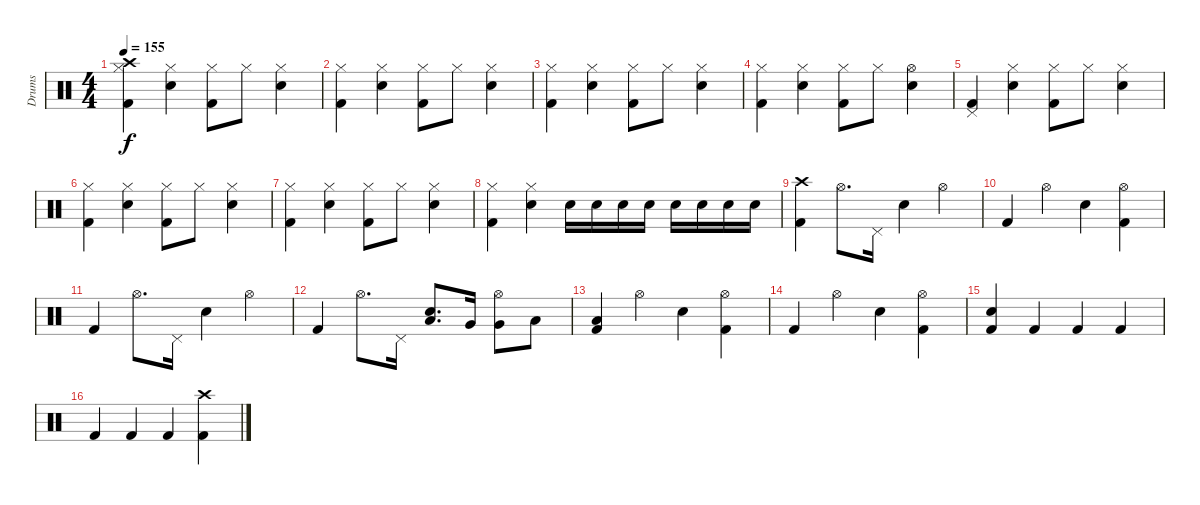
\track ("Drums" "Drums") {instrument percussion}
\staff {score}
\articulation defaults
\ts (4 4)
\tempo 155
\clef neutral
\ks c
("Crash high (hit)" "Hi-Hat (closed)" "Kick (hit) 2").4{dy f} ("Hi-Hat (closed)" "Electric Snare (hit)").4 ("Hi-Hat (closed)" "Kick (hit) 2").8 "Hi-Hat (closed)".8 ("Hi-Hat (closed)" "Electric Snare (hit)").4 |
("Hi-Hat (closed)" "Kick (hit) 2").4 ("Hi-Hat (closed)" "Electric Snare (hit)").4 ("Hi-Hat (closed)" "Kick (hit) 2").8 "Hi-Hat (closed)".8 ("Hi-Hat (closed)" "Electric Snare (hit)").4 |
("Hi-Hat (closed)" "Kick (hit) 2").4 ("Hi-Hat (closed)" "Electric Snare (hit)").4 ("Hi-Hat (closed)" "Kick (hit) 2").8 "Hi-Hat (closed)".8 ("Hi-Hat (closed)" "Electric Snare (hit)").4 |
("Hi-Hat (closed)" "Kick (hit) 2").4 ("Hi-Hat (closed)" "Electric Snare (hit)").4 ("Hi-Hat (closed)" "Kick (hit) 2").8 "Hi-Hat (closed)".8 ("Hi-Hat (open)" "Electric Snare (hit)").4 |
("Pedal Hi-Hat (hit)" "Kick (hit) 2").4 ("Hi-Hat (closed)" "Electric Snare (hit)").4 ("Hi-Hat (closed)" "Kick (hit) 2").8 "Hi-Hat (closed)".8 ("Hi-Hat (closed)" "Electric Snare (hit)").4 |
("Hi-Hat (closed)" "Kick (hit) 2").4 ("Hi-Hat (closed)" "Electric Snare (hit)").4 ("Hi-Hat (closed)" "Kick (hit) 2").8 "Hi-Hat (closed)".8 ("Hi-Hat (closed)" "Electric Snare (hit)").4 |
("Hi-Hat (closed)" "Kick (hit) 2").4 ("Hi-Hat (closed)" "Electric Snare (hit)").4 ("Hi-Hat (closed)" "Kick (hit) 2").8 "Hi-Hat (closed)".8 ("Hi-Hat (closed)" "Electric Snare (hit)").4 |
("Hi-Hat (closed)" "Kick (hit) 2").4 ("Hi-Hat (closed)" "Electric Snare (hit)").4 "Electric Snare (hit)".16 "Electric Snare (hit)".16 "Electric Snare (hit)".16 "Electric Snare (hit)".16 "Electric Snare (hit)".16 "Electric Snare (hit)".16 "Electric Snare (hit)".16 "Electric Snare (hit)".16 |
("Crash high (hit)" "Kick (hit) 2").4 "Hi-Hat (open)".8{d} "Pedal Hi-Hat (hit)".16 "Electric Snare (hit)".4 "Hi-Hat (open)".4 |
"Kick (hit) 2".4 "Hi-Hat (open)".4 "Electric Snare (hit)".4 ("Hi-Hat (open)" "Kick (hit) 2").4 |
"Kick (hit) 2".4 "Hi-Hat (open)".8{d} "Pedal Hi-Hat (hit)".16 "Electric Snare (hit)".4 "Hi-Hat (open)".4 |
"Kick (hit) 2".4 "Hi-Hat (open)".8{d} "Pedal Hi-Hat (hit)".16 ("Low Tom (hit)" "Electric Snare (hit)").8{d} "Very Low Tom (hit)".16 ("Hi-Hat (open)" "Very Low Tom (hit)").8 "Low Floor Tom (hit)".8 |
("Low Floor Tom (hit)" "Kick (hit) 2").4 "Hi-Hat (open)".4 "Electric Snare (hit)".4 ("Hi-Hat (open)" "Kick (hit) 2").4 |
"Kick (hit) 2".4 "Hi-Hat (open)".4 "Electric Snare (hit)".4 ("Hi-Hat (open)" "Kick (hit) 2").4 |
("Electric Snare (hit)" "Kick (hit) 2").4 "Kick (hit) 2".4 "Kick (hit) 2".4 "Kick (hit) 2".4 |
"Kick (hit) 2".4 "Kick (hit) 2".4 "Kick (hit) 2".4 ("Crash high (hit)" "Kick (hit) 2").4
